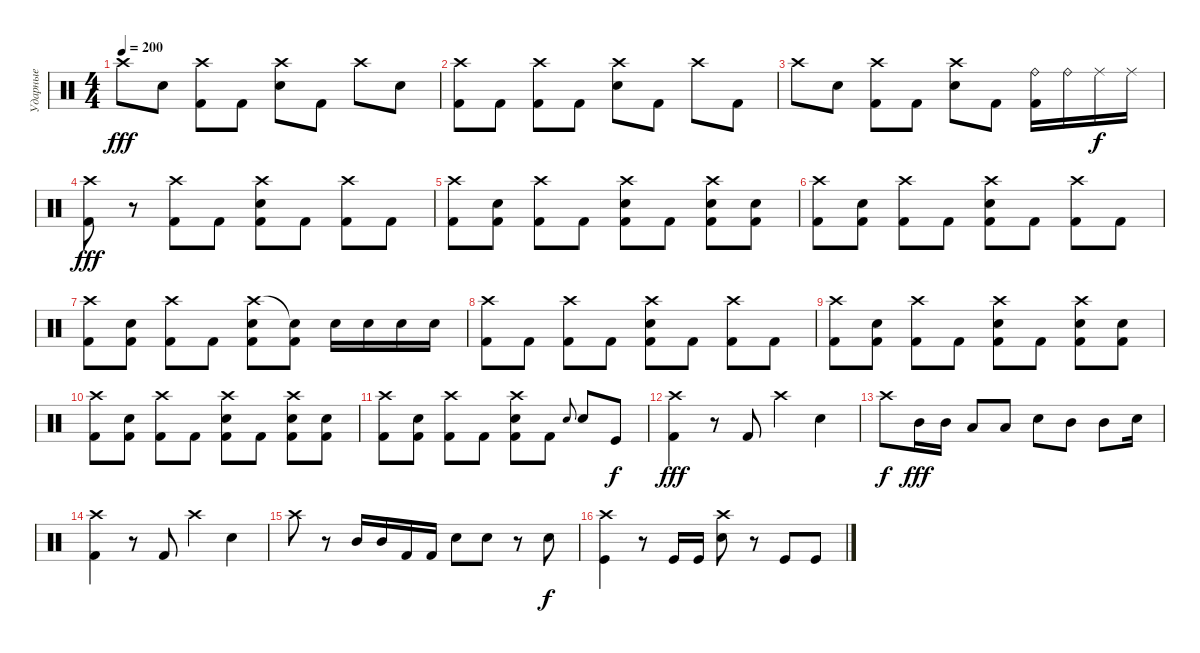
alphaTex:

\track ("Ударные" "Ударные") {instrument percussion}
\staff {score}
\articulation defaults
\ts (4 4)
\tempo 200
\clef neutral
\ks c "Crash high (hit)".8{dy fff} "Electric Snare (hit)".8
("Crash high (hit)" "Kick (hit) 2").8 "Kick (hit) 2".8 ("Crash high (hit)" "Electric Snare (hit)").8 "Kick (hit) 2".8 "Crash high (hit)".8 "Electric Snare (hit)".8 |
("Crash high (hit)" "Kick (hit) 2").8 "Kick (hit) 2".8 ("Crash high (hit)" "Kick (hit) 2").8 "Kick (hit) 2".8 ("Crash high (hit)" "Electric Snare (hit)").8 "Kick (hit) 2".8 "Crash high (hit)".8 "Kick (hit) 2".8 |
"Crash high (hit)".8 "Electric Snare (hit)".8 ("Crash high (hit)" "Kick (hit) 2").8 "Kick (hit) 2".8 ("Crash high (hit)" "Electric Snare (hit)").8 "Kick (hit) 2".8 ("Ride (bell)" "Kick (hit) 2").16 "Ride (bell)".16 "Ride (middle)".16{dy f} "Ride (middle)".16 |
("Crash high (hit)" "Kick (hit) 2").8{dy fff} r.8 ("Crash high (hit)" "Kick (hit) 2").8 "Kick (hit) 2".8 ("Crash high (hit)" "Kick (hit) 2" "Electric Snare (hit)").8 "Kick (hit) 2".8 ("Crash high (hit)" "Kick (hit) 2").8 "Kick (hit) 2".8 |
("Crash high (hit)" "Kick (hit) 2").8 ("Kick (hit) 2" "Electric Snare (hit)").8 ("Crash high (hit)" "Kick (hit) 2").8 "Kick (hit) 2".8 ("Crash high (hit)" "Kick (hit) 2" "Electric Snare (hit)").8 "Kick (hit) 2".8 ("Crash high (hit)" "Kick (hit) 2" "Electric Snare (hit)").8 ("Electric Snare (hit)" "Kick (hit) 2").8 |
("Crash high (hit)" "Kick (hit) 2").8 ("Kick (hit) 2" "Electric Snare (hit)").8 ("Crash high (hit)" "Kick (hit) 2").8 "Kick (hit) 2".8 ("Crash high (hit)" "Kick (hit) 2" "Electric Snare (hit)").8 "Kick (hit) 2".8 ("Crash high (hit)" "Kick (hit) 2").8 "Kick (hit) 2".8 |
("Crash high (hit)" "Kick (hit) 2").8 ("Kick (hit) 2" "Electric Snare (hit)").8 ("Crash high (hit)" "Kick (hit) 2").8 "Kick (hit) 2".8 ("Crash high (hit)" "Kick (hit) 2" "Electric Snare (hit)").8 ("Snare (hit)"{t} "Kick (hit) 2").8 "Electric Snare (hit)".16 "Electric Snare (hit)".16 "Electric Snare (hit)".16 "Electric Snare (hit)".16 |
("Crash high (hit)" "Kick (hit) 2").8 "Kick (hit) 2".8 ("Crash high (hit)" "Kick (hit) 2").8 "Kick (hit) 2".8 ("Crash high (hit)" "Kick (hit) 2" "Electric Snare (hit)").8 "Kick (hit) 2".8 ("Crash high (hit)" "Kick (hit) 2").8 "Kick (hit) 2".8 |
("Crash high (hit)" "Kick (hit) 2").8 ("Kick (hit) 2" "Electric Snare (hit)").8 ("Crash high (hit)" "Kick (hit) 2").8 "Kick (hit) 2".8 ("Crash high (hit)" "Kick (hit) 2" "Electric Snare (hit)").8 "Kick (hit) 2".8 ("Crash high (hit)" "Kick (hit) 2" "Electric Snare (hit)").8 ("Electric Snare (hit)" "Kick (hit) 2").8 |
("Crash high (hit)" "Kick (hit) 2").8 ("Kick (hit) 2" "Electric Snare (hit)").8 ("Crash high (hit)" "Kick (hit) 2").8 "Kick (hit) 2".8 ("Crash high (hit)" "Kick (hit) 2" "Electric Snare (hit)").8 "Kick (hit) 2".8 ("Crash high (hit)" "Kick (hit) 2" "Electric Snare (hit)").8 ("Kick (hit) 2" "Electric Snare (hit)").8 |
("Crash high (hit)" "Kick (hit) 2").8 ("Kick (hit) 2" "Electric Snare (hit)").8 ("Crash high (hit)" "Kick (hit) 2").8 "Kick (hit) 2".8 ("Crash high (hit)" "Kick (hit) 2" "Electric Snare (hit)").8 "Kick (hit) 2".8 "Electric Snare (hit)"{h}.8{gr onbeat} "Electric Snare (hit)".8 "Kick (hit)".8{dy f} |
("Crash high (hit)" "Kick (hit) 2").4{dy fff} r.8 "Kick (hit) 2".8 "Crash high (hit)".4 "Electric Snare (hit)".4 |
"Crash high (hit)".8{dy f} "Mid Tom (hit)".16{dy fff} "Mid Tom (hit)".16 "Low Tom (hit)".8 "Low Tom (hit)".8 "Electric Snare (hit)".8 "Mid Tom (hit)".8 "Mid Tom (hit)".8 "Electric Snare (hit)".16 |
("Crash high (hit)" "Kick (hit) 2").4 r.8 "Kick (hit) 2".8 "Crash high (hit)".4 "Electric Snare (hit)".4 |
"Crash high (hit)".8 r.8 "Mid Tom (hit)".16 "Mid Tom (hit)".16 "Kick (hit) 2".16 "Kick (hit) 2".16 "Electric Snare (hit)".8 "Electric Snare (hit)".8 r.8 "Snare (hit) 2".8{dy f} |
("Kick (hit)" "Crash high (hit)").4 r.8 "Kick (hit)".16 "Kick (hit)".16 ("Snare (hit) 2" "Crash high (hit)").8 r.8 "Kick (hit)".8 "Kick (hit)".8
